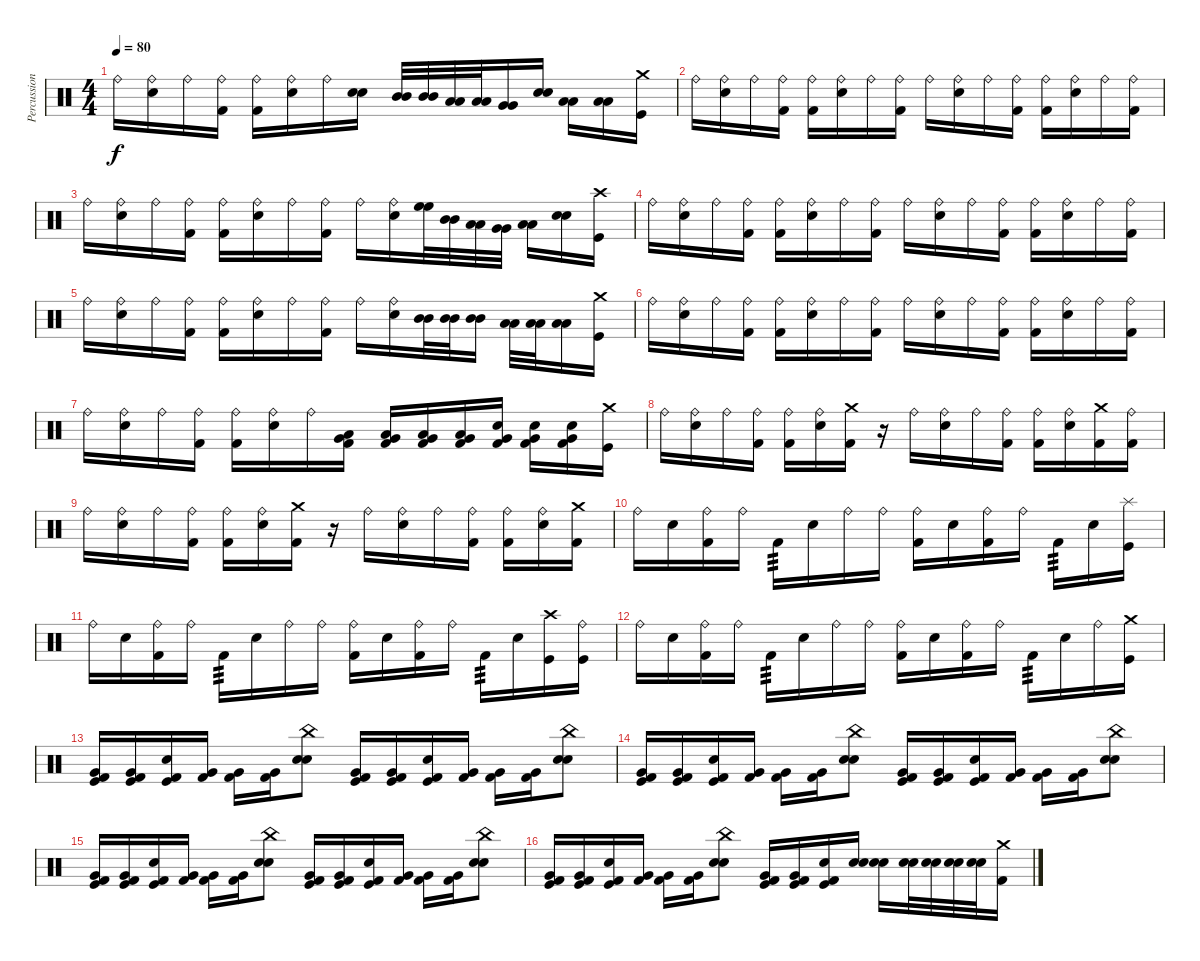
\track ("Percussion" "Percussion") {instrument percussion}
\staff {score}
\articulation defaults
\ts (4 4)
\tempo 80
\clef neutral
\ks c "Ride (bell)".16{dy f}
("Electric Snare (hit)" "Ride (bell)").16 "Ride (bell)".16 ("Kick (hit) 2" "Ride (bell)").16 ("Kick (hit) 2" "Ride (bell)").16 ("Electric Snare (hit)" "Ride (bell)").16 "Ride (bell)".16 ("Electric Snare (hit)" "Electric Snare (hit)").16 ("Mid Tom (hit)" "Mid Tom (hit)").32 ("Mid Tom (hit)" "Mid Tom (hit)").32 ("Low Tom (hit)" "Low Tom (hit)").32 ("Low Tom (hit)" "Low Tom (hit)").32 ("Very Low Tom (hit)" "Very Low Tom (hit)").16 ("Electric Snare (hit)" "Electric Snare (hit)").16 ("Low Tom (hit)" "Low Tom (hit)").16 ("Low Tom (hit)" "Low Tom (hit)").16 ("Crash medium (hit)" "Kick (hit)").16 |
"Ride (bell)".16 ("Electric Snare (hit)" "Ride (bell)").16 "Ride (bell)".16 ("Kick (hit) 2" "Ride (bell)").16 ("Kick (hit) 2" "Ride (bell)").16 ("Electric Snare (hit)" "Ride (bell)").16 "Ride (bell)".16 ("Kick (hit) 2" "Ride (bell)").16 "Ride (bell)".16 ("Electric Snare (hit)" "Ride (bell)").16 "Ride (bell)".16 ("Kick (hit) 2" "Ride (bell)").16 ("Kick (hit) 2" "Ride (bell)").16 ("Electric Snare (hit)" "Ride (bell)").16 "Ride (bell)".16 ("Kick (hit) 2" "Ride (bell)").16 |
"Ride (bell)".16 ("Electric Snare (hit)" "Ride (bell)").16 "Ride (bell)".16 ("Kick (hit) 2" "Ride (bell)").16 ("Kick (hit) 2" "Ride (bell)").16 ("Electric Snare (hit)" "Ride (bell)").16 "Ride (bell)".16 ("Kick (hit) 2" "Ride (bell)").16 "Ride (bell)".16 ("Electric Snare (hit)" "Ride (bell)").16 ("High Floor Tom (hit)" "High Floor Tom (hit)").32 ("Mid Tom (hit)" "Mid Tom (hit)").32 ("Low Tom (hit)" "Low Tom (hit)").32 ("Very Low Tom (hit)" "Very Low Tom (hit)").32 ("Low Floor Tom (hit)" "Low Floor Tom (hit)").16 ("Electric Snare (hit)" "Electric Snare (hit)").16 ("Crash high (hit)" "Kick (hit)").16 |
"Ride (bell)".16 ("Electric Snare (hit)" "Ride (bell)").16 "Ride (bell)".16 ("Kick (hit) 2" "Ride (bell)").16 ("Kick (hit) 2" "Ride (bell)").16 ("Electric Snare (hit)" "Ride (bell)").16 "Ride (bell)".16 ("Kick (hit) 2" "Ride (bell)").16 "Ride (bell)".16 ("Electric Snare (hit)" "Ride (bell)").16 "Ride (bell)".16 ("Kick (hit) 2" "Ride (bell)").16 ("Kick (hit) 2" "Ride (bell)").16 ("Electric Snare (hit)" "Ride (bell)").16 "Ride (bell)".16 ("Kick (hit) 2" "Ride (bell)").16 |
"Ride (bell)".16 ("Electric Snare (hit)" "Ride (bell)").16 "Ride (bell)".16 ("Kick (hit) 2" "Ride (bell)").16 ("Kick (hit) 2" "Ride (bell)").16 ("Electric Snare (hit)" "Ride (bell)").16 "Ride (bell)".16 ("Kick (hit) 2" "Ride (bell)").16 "Ride (bell)".16 ("Electric Snare (hit)" "Ride (bell)").16 ("Mid Tom (hit)" "Mid Tom (hit)").32 ("Mid Tom (hit)" "Mid Tom (hit)").32 ("Mid Tom (hit)" "Mid Tom (hit)").16 ("Low Tom (hit)" "Low Tom (hit)").32 ("Low Tom (hit)" "Low Tom (hit)").32 ("Low Tom (hit)" "Low Tom (hit)").16 ("Crash medium (hit)" "Kick (hit)").16 |
"Ride (bell)".16 ("Electric Snare (hit)" "Ride (bell)").16 "Ride (bell)".16 ("Kick (hit) 2" "Ride (bell)").16 ("Kick (hit) 2" "Ride (bell)").16 ("Electric Snare (hit)" "Ride (bell)").16 "Ride (bell)".16 ("Kick (hit) 2" "Ride (bell)").16 "Ride (bell)".16 ("Electric Snare (hit)" "Ride (bell)").16 "Ride (bell)".16 ("Kick (hit) 2" "Ride (bell)").16 ("Kick (hit) 2" "Ride (bell)").16 ("Electric Snare (hit)" "Ride (bell)").16 "Ride (bell)".16 ("Kick (hit) 2" "Ride (bell)").16 |
"Ride (bell)".16 ("Electric Snare (hit)" "Ride (bell)").16 "Ride (bell)".16 ("Kick (hit) 2" "Ride (bell)").16 ("Kick (hit) 2" "Ride (bell)").16 ("Electric Snare (hit)" "Ride (bell)").16 "Ride (bell)".16 ("Kick (hit) 2" "Very Low Tom (hit)" "Low Floor Tom (hit)").16 ("Kick (hit) 2" "Very Low Tom (hit)" "Low Floor Tom (hit)").16 ("Kick (hit) 2" "Very Low Tom (hit)" "Low Floor Tom (hit)").16 ("Kick (hit) 2" "Very Low Tom (hit)" "Low Floor Tom (hit)").16 ("Kick (hit) 2" "Very Low Tom (hit)" "Electric Snare (hit)").16 ("Kick (hit) 2" "Very Low Tom (hit)" "Electric Snare (hit)").16 ("Kick (hit) 2" "Very Low Tom (hit)" "Electric Snare (hit)").16 ("Crash medium (hit)" "Kick (hit)").16 |
"Ride (bell)".16 ("Electric Snare (hit)" "Ride (bell)").16 "Ride (bell)".16 ("Kick (hit) 2" "Ride (bell)").16 ("Kick (hit) 2" "Ride (bell)").16 ("Electric Snare (hit)" "Ride (bell)").16 ("Kick (hit) 2" "Crash medium (hit)").16 r.16 "Ride (bell)".16 ("Electric Snare (hit)" "Ride (bell)").16 "Ride (bell)".16 ("Kick (hit) 2" "Ride (bell)").16 ("Kick (hit) 2" "Ride (bell)").16 ("Electric Snare (hit)" "Ride (bell)").16 ("Kick (hit) 2" "Crash medium (hit)").16 ("Kick (hit) 2" "Ride (bell)").16 |
"Ride (bell)".16 ("Electric Snare (hit)" "Ride (bell)").16 "Ride (bell)".16 ("Kick (hit) 2" "Ride (bell)").16 ("Kick (hit) 2" "Ride (bell)").16 ("Electric Snare (hit)" "Ride (bell)").16 ("Kick (hit) 2" "Crash medium (hit)").16 r.16 "Ride (bell)".16 ("Electric Snare (hit)" "Ride (bell)").16 "Ride (bell)".16 ("Kick (hit) 2" "Ride (bell)").16 ("Kick (hit) 2" "Ride (bell)").16 ("Electric Snare (hit)" "Ride (bell)").16 ("Kick (hit) 2" "Crash medium (hit)").16 |
"Ride (bell)".16 "Electric Snare (hit)".16 ("Ride (bell)" "Kick (hit) 2").16 "Ride (bell)".16 "Kick (hit) 2".16{tp 3} "Electric Snare (hit)".16 "Ride (bell)".16 "Ride (bell)".16 ("Ride (bell)" "Kick (hit) 2").16 "Electric Snare (hit)".16 ("Ride (bell)" "Kick (hit) 2").16 "Ride (bell)".16 "Kick (hit) 2".16{tp 3} "Electric Snare (hit)".16 ("Splash (hit)" "Kick (hit)").16 |
"Ride (bell)".16 "Electric Snare (hit)".16 ("Ride (bell)" "Kick (hit) 2").16 "Ride (bell)".16 "Kick (hit) 2".16{tp 3} "Electric Snare (hit)".16 "Ride (bell)".16 "Ride (bell)".16 ("Ride (bell)" "Kick (hit) 2").16 "Electric Snare (hit)".16 ("Ride (bell)" "Kick (hit) 2").16 "Ride (bell)".16 "Kick (hit) 2".16{tp 3} "Electric Snare (hit)".16 ("Crash high (hit)" "Kick (hit)").16 ("Ride (bell)" "Kick (hit)").16 |
"Ride (bell)".16 "Electric Snare (hit)".16 ("Ride (bell)" "Kick (hit) 2").16 "Ride (bell)".16 "Kick (hit) 2".16{tp 3} "Electric Snare (hit)".16 "Ride (bell)".16 "Ride (bell)".16 ("Ride (bell)" "Kick (hit) 2").16 "Electric Snare (hit)".16 ("Ride (bell)" "Kick (hit) 2").16 "Ride (bell)".16 "Kick (hit) 2".16{tp 3} "Electric Snare (hit)".16 "Ride (bell)".16 ("Crash medium (hit)" "Kick (hit)").16 |
("Kick (hit) 2" "Kick (hit)" "Very Low Tom (hit)").16 ("Kick (hit) 2" "Kick (hit)" "Very Low Tom (hit)").16 ("Kick (hit) 2" "Kick (hit)" "Electric Snare (hit)").16 ("Kick (hit) 2" "Very Low Tom (hit)").16 ("Kick (hit) 2" "Very Low Tom (hit)").16 ("Kick (hit) 2" "Very Low Tom (hit)").16 ("China (hit)" "Electric Snare (hit)" "Electric Snare (hit)").8 ("Kick (hit) 2" "Kick (hit)" "Very Low Tom (hit)").16 ("Kick (hit) 2" "Kick (hit)" "Very Low Tom (hit)").16 ("Kick (hit) 2" "Kick (hit)" "Electric Snare (hit)").16 ("Kick (hit) 2" "Very Low Tom (hit)").16 ("Kick (hit) 2" "Very Low Tom (hit)").16 ("Kick (hit) 2" "Very Low Tom (hit)").16 ("China (hit)" "Electric Snare (hit)" "Electric Snare (hit)").8 |
("Kick (hit) 2" "Kick (hit)" "Very Low Tom (hit)").16 ("Kick (hit) 2" "Kick (hit)" "Very Low Tom (hit)").16 ("Kick (hit) 2" "Kick (hit)" "Electric Snare (hit)").16 ("Kick (hit) 2" "Very Low Tom (hit)").16 ("Kick (hit) 2" "Very Low Tom (hit)").16 ("Kick (hit) 2" "Very Low Tom (hit)").16 ("China (hit)" "Electric Snare (hit)" "Electric Snare (hit)").8 ("Kick (hit) 2" "Kick (hit)" "Very Low Tom (hit)").16 ("Kick (hit) 2" "Kick (hit)" "Very Low Tom (hit)").16 ("Kick (hit) 2" "Kick (hit)" "Electric Snare (hit)").16 ("Kick (hit) 2" "Very Low Tom (hit)").16 ("Kick (hit) 2" "Very Low Tom (hit)").16 ("Kick (hit) 2" "Very Low Tom (hit)").16 ("China (hit)" "Electric Snare (hit)" "Electric Snare (hit)").8 |
("Kick (hit) 2" "Kick (hit)" "Very Low Tom (hit)").16 ("Kick (hit) 2" "Kick (hit)" "Very Low Tom (hit)").16 ("Kick (hit) 2" "Kick (hit)" "Electric Snare (hit)").16 ("Kick (hit) 2" "Very Low Tom (hit)").16 ("Kick (hit) 2" "Very Low Tom (hit)").16 ("Kick (hit) 2" "Very Low Tom (hit)").16 ("China (hit)" "Electric Snare (hit)" "Electric Snare (hit)").8 ("Kick (hit) 2" "Kick (hit)" "Very Low Tom (hit)").16 ("Kick (hit) 2" "Kick (hit)" "Very Low Tom (hit)").16 ("Kick (hit) 2" "Kick (hit)" "Electric Snare (hit)").16 ("Kick (hit) 2" "Very Low Tom (hit)").16 ("Kick (hit) 2" "Very Low Tom (hit)").16 ("Kick (hit) 2" "Very Low Tom (hit)").16 ("China (hit)" "Electric Snare (hit)" "Electric Snare (hit)").8 |
("Kick (hit) 2" "Kick (hit)" "Very Low Tom (hit)").16 ("Kick (hit) 2" "Kick (hit)" "Very Low Tom (hit)").16 ("Kick (hit) 2" "Kick (hit)" "Electric Snare (hit)").16 ("Kick (hit) 2" "Very Low Tom (hit)").16 ("Kick (hit) 2" "Very Low Tom (hit)").16 ("Kick (hit) 2" "Very Low Tom (hit)").16 ("China (hit)" "Electric Snare (hit)" "Electric Snare (hit)").8 ("Kick (hit) 2" "Kick (hit)" "Very Low Tom (hit)").16 ("Kick (hit) 2" "Kick (hit)" "Very Low Tom (hit)").16 ("Kick (hit) 2" "Kick (hit)" "Electric Snare (hit)").16 ("Electric Snare (hit)" "Electric Snare (hit)").16 ("Electric Snare (hit)" "Electric Snare (hit)").16 ("Electric Snare (hit)" "Electric Snare (hit)").32 ("Electric Snare (hit)" "Electric Snare (hit)").32 ("Electric Snare (hit)" "Electric Snare (hit)").32 ("Electric Snare (hit)" "Electric Snare (hit)").32 ("Crash medium (hit)" "Kick (hit) 2").16
